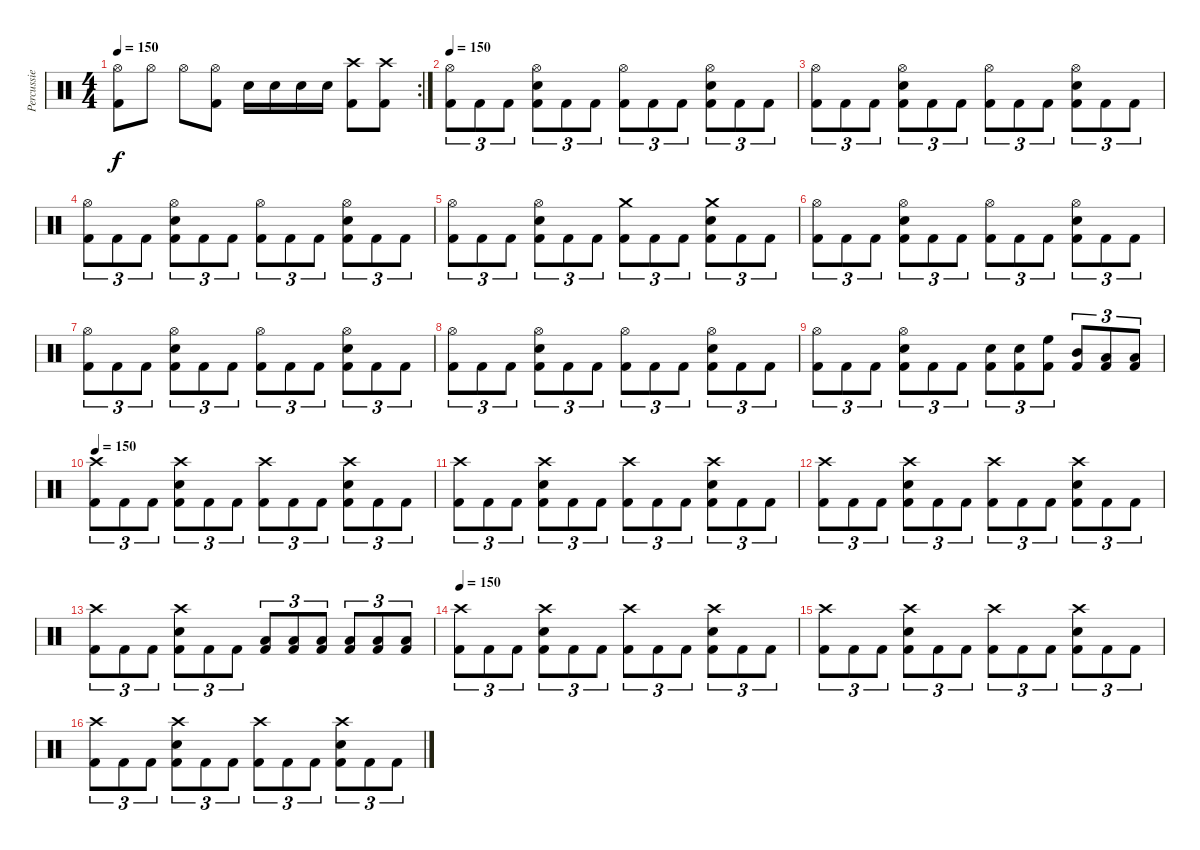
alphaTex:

\track ("Percussie" "Percussie") {instrument percussion}
\staff {score}
\articulation defaults
\rc 2
\ts (4 4)
\tempo 150
\clef neutral
\ks c
("Hi-Hat (open)" "Kick (hit) 2").8{dy f} "Hi-Hat (open)".8 "Hi-Hat (open)".8 ("Hi-Hat (open)" "Kick (hit) 2").8 "Snare (hit) 2".16 "Snare (hit) 2".16 "Snare (hit) 2".16 "Snare (hit) 2".16 ("Crash high (hit)" "Kick (hit) 2").8 ("Crash high (hit)" "Kick (hit) 2").8 |
\tempo 150
("Hi-Hat (open)" "Kick (hit) 2").8{tu (3 2)} "Kick (hit) 2".8{tu (3 2)} "Kick (hit) 2".8{tu (3 2)} ("Hi-Hat (open)" "Snare (hit) 2" "Kick (hit) 2").8{tu (3 2)} "Kick (hit) 2".8{tu (3 2)} "Kick (hit) 2".8{tu (3 2)} ("Hi-Hat (open)" "Kick (hit) 2").8{tu (3 2)} "Kick (hit) 2".8{tu (3 2)} "Kick (hit) 2".8{tu (3 2)} ("Hi-Hat (open)" "Snare (hit) 2" "Kick (hit) 2").8{tu (3 2)} "Kick (hit) 2".8{tu (3 2)} "Kick (hit) 2".8{tu (3 2)} |
("Hi-Hat (open)" "Kick (hit) 2").8{tu (3 2)} "Kick (hit) 2".8{tu (3 2)} "Kick (hit) 2".8{tu (3 2)} ("Hi-Hat (open)" "Snare (hit) 2" "Kick (hit) 2").8{tu (3 2)} "Kick (hit) 2".8{tu (3 2)} "Kick (hit) 2".8{tu (3 2)} ("Hi-Hat (open)" "Kick (hit) 2").8{tu (3 2)} "Kick (hit) 2".8{tu (3 2)} "Kick (hit) 2".8{tu (3 2)} ("Hi-Hat (open)" "Snare (hit) 2" "Kick (hit) 2").8{tu (3 2)} "Kick (hit) 2".8{tu (3 2)} "Kick (hit) 2".8{tu (3 2)} |
("Hi-Hat (open)" "Kick (hit) 2").8{tu (3 2)} "Kick (hit) 2".8{tu (3 2)} "Kick (hit) 2".8{tu (3 2)} ("Hi-Hat (open)" "Snare (hit) 2" "Kick (hit) 2").8{tu (3 2)} "Kick (hit) 2".8{tu (3 2)} "Kick (hit) 2".8{tu (3 2)} ("Hi-Hat (open)" "Kick (hit) 2").8{tu (3 2)} "Kick (hit) 2".8{tu (3 2)} "Kick (hit) 2".8{tu (3 2)} ("Hi-Hat (open)" "Snare (hit) 2" "Kick (hit) 2").8{tu (3 2)} "Kick (hit) 2".8{tu (3 2)} "Kick (hit) 2".8{tu (3 2)} |
("Hi-Hat (open)" "Kick (hit) 2").8{tu (3 2)} "Kick (hit) 2".8{tu (3 2)} "Kick (hit) 2".8{tu (3 2)} ("Hi-Hat (open)" "Snare (hit) 2" "Kick (hit) 2").8{tu (3 2)} "Kick (hit) 2".8{tu (3 2)} "Kick (hit) 2".8{tu (3 2)} ("Crash medium (hit)" "Kick (hit) 2").8{tu (3 2)} "Kick (hit) 2".8{tu (3 2)} "Kick (hit) 2".8{tu (3 2)} ("Crash medium (hit)" "Snare (hit) 2" "Kick (hit) 2").8{tu (3 2)} "Kick (hit) 2".8{tu (3 2)} "Kick (hit) 2".8{tu (3 2)} |
("Hi-Hat (open)" "Kick (hit) 2").8{tu (3 2)} "Kick (hit) 2".8{tu (3 2)} "Kick (hit) 2".8{tu (3 2)} ("Hi-Hat (open)" "Snare (hit) 2" "Kick (hit) 2").8{tu (3 2)} "Kick (hit) 2".8{tu (3 2)} "Kick (hit) 2".8{tu (3 2)} ("Hi-Hat (open)" "Kick (hit) 2").8{tu (3 2)} "Kick (hit) 2".8{tu (3 2)} "Kick (hit) 2".8{tu (3 2)} ("Hi-Hat (open)" "Snare (hit) 2" "Kick (hit) 2").8{tu (3 2)} "Kick (hit) 2".8{tu (3 2)} "Kick (hit) 2".8{tu (3 2)} |
("Hi-Hat (open)" "Kick (hit) 2").8{tu (3 2)} "Kick (hit) 2".8{tu (3 2)} "Kick (hit) 2".8{tu (3 2)} ("Hi-Hat (open)" "Snare (hit) 2" "Kick (hit) 2").8{tu (3 2)} "Kick (hit) 2".8{tu (3 2)} "Kick (hit) 2".8{tu (3 2)} ("Hi-Hat (open)" "Kick (hit) 2").8{tu (3 2)} "Kick (hit) 2".8{tu (3 2)} "Kick (hit) 2".8{tu (3 2)} ("Hi-Hat (open)" "Snare (hit) 2" "Kick (hit) 2").8{tu (3 2)} "Kick (hit) 2".8{tu (3 2)} "Kick (hit) 2".8{tu (3 2)} |
("Hi-Hat (open)" "Kick (hit) 2").8{tu (3 2)} "Kick (hit) 2".8{tu (3 2)} "Kick (hit) 2".8{tu (3 2)} ("Hi-Hat (open)" "Snare (hit) 2" "Kick (hit) 2").8{tu (3 2)} "Kick (hit) 2".8{tu (3 2)} "Kick (hit) 2".8{tu (3 2)} ("Hi-Hat (open)" "Kick (hit) 2").8{tu (3 2)} "Kick (hit) 2".8{tu (3 2)} "Kick (hit) 2".8{tu (3 2)} ("Hi-Hat (open)" "Snare (hit) 2" "Kick (hit) 2").8{tu (3 2)} "Kick (hit) 2".8{tu (3 2)} "Kick (hit) 2".8{tu (3 2)} |
("Hi-Hat (open)" "Kick (hit) 2").8{tu (3 2)} "Kick (hit) 2".8{tu (3 2)} "Kick (hit) 2".8{tu (3 2)} ("Hi-Hat (open)" "Snare (hit) 2" "Kick (hit) 2").8{tu (3 2)} "Kick (hit) 2".8{tu (3 2)} "Kick (hit) 2".8{tu (3 2)} ("Snare (hit) 2" "Kick (hit) 2").8{tu (3 2)} ("Snare (hit) 2" "Kick (hit) 2").8{tu (3 2)} ("High Floor Tom (hit)" "Kick (hit) 2").8{tu (3 2)} ("Mid Tom (hit)" "Kick (hit) 2").8{tu (3 2)} ("Low Tom (hit)" "Kick (hit) 2").8{tu (3 2)} ("Low Floor Tom (hit)" "Kick (hit) 2").8{tu (3 2)} |
\tempo 150
("Crash high (hit)" "Kick (hit) 2").8{tu (3 2)} "Kick (hit) 2".8{tu (3 2)} "Kick (hit) 2".8{tu (3 2)} ("Crash high (hit)" "Snare (hit) 2" "Kick (hit) 2").8{tu (3 2)} "Kick (hit) 2".8{tu (3 2)} "Kick (hit) 2".8{tu (3 2)} ("Crash high (hit)" "Kick (hit) 2").8{tu (3 2)} "Kick (hit) 2".8{tu (3 2)} "Kick (hit) 2".8{tu (3 2)} ("Crash high (hit)" "Snare (hit) 2" "Kick (hit) 2").8{tu (3 2)} "Kick (hit) 2".8{tu (3 2)} "Kick (hit) 2".8{tu (3 2)} |
("Crash high (hit)" "Kick (hit) 2").8{tu (3 2)} "Kick (hit) 2".8{tu (3 2)} "Kick (hit) 2".8{tu (3 2)} ("Crash high (hit)" "Snare (hit) 2" "Kick (hit) 2").8{tu (3 2)} "Kick (hit) 2".8{tu (3 2)} "Kick (hit) 2".8{tu (3 2)} ("Crash high (hit)" "Kick (hit) 2").8{tu (3 2)} "Kick (hit) 2".8{tu (3 2)} "Kick (hit) 2".8{tu (3 2)} ("Crash high (hit)" "Snare (hit) 2" "Kick (hit) 2").8{tu (3 2)} "Kick (hit) 2".8{tu (3 2)} "Kick (hit) 2".8{tu (3 2)} |
("Crash high (hit)" "Kick (hit) 2").8{tu (3 2)} "Kick (hit) 2".8{tu (3 2)} "Kick (hit) 2".8{tu (3 2)} ("Crash high (hit)" "Snare (hit) 2" "Kick (hit) 2").8{tu (3 2)} "Kick (hit) 2".8{tu (3 2)} "Kick (hit) 2".8{tu (3 2)} ("Crash high (hit)" "Kick (hit) 2").8{tu (3 2)} "Kick (hit) 2".8{tu (3 2)} "Kick (hit) 2".8{tu (3 2)} ("Crash high (hit)" "Snare (hit) 2" "Kick (hit) 2").8{tu (3 2)} "Kick (hit) 2".8{tu (3 2)} "Kick (hit) 2".8{tu (3 2)} |
("Crash high (hit)" "Kick (hit) 2").8{tu (3 2)} "Kick (hit) 2".8{tu (3 2)} "Kick (hit) 2".8{tu (3 2)} ("Crash high (hit)" "Snare (hit) 2" "Kick (hit) 2").8{tu (3 2)} "Kick (hit) 2".8{tu (3 2)} "Kick (hit) 2".8{tu (3 2)} ("Low Tom (hit)" "Kick (hit) 2").8{tu (3 2)} ("Low Floor Tom (hit)" "Kick (hit) 2").8{tu (3 2)} ("Low Floor Tom (hit)" "Kick (hit) 2").8{tu (3 2)} ("Low Tom (hit)" "Kick (hit) 2").8{tu (3 2)} ("Low Floor Tom (hit)" "Kick (hit) 2").8{tu (3 2)} ("Low Floor Tom (hit)" "Kick (hit) 2").8{tu (3 2)} |
\tempo 150
("Crash high (hit)" "Kick (hit) 2").8{tu (3 2)} "Kick (hit) 2".8{tu (3 2)} "Kick (hit) 2".8{tu (3 2)} ("Crash high (hit)" "Snare (hit) 2" "Kick (hit) 2").8{tu (3 2)} "Kick (hit) 2".8{tu (3 2)} "Kick (hit) 2".8{tu (3 2)} ("Crash high (hit)" "Kick (hit) 2").8{tu (3 2)} "Kick (hit) 2".8{tu (3 2)} "Kick (hit) 2".8{tu (3 2)} ("Crash high (hit)" "Snare (hit) 2" "Kick (hit) 2").8{tu (3 2)} "Kick (hit) 2".8{tu (3 2)} "Kick (hit) 2".8{tu (3 2)} |
("Crash high (hit)" "Kick (hit) 2").8{tu (3 2)} "Kick (hit) 2".8{tu (3 2)} "Kick (hit) 2".8{tu (3 2)} ("Crash high (hit)" "Snare (hit) 2" "Kick (hit) 2").8{tu (3 2)} "Kick (hit) 2".8{tu (3 2)} "Kick (hit) 2".8{tu (3 2)} ("Crash high (hit)" "Kick (hit) 2").8{tu (3 2)} "Kick (hit) 2".8{tu (3 2)} "Kick (hit) 2".8{tu (3 2)} ("Crash high (hit)" "Snare (hit) 2" "Kick (hit) 2").8{tu (3 2)} "Kick (hit) 2".8{tu (3 2)} "Kick (hit) 2".8{tu (3 2)} |
("Crash high (hit)" "Kick (hit) 2").8{tu (3 2)} "Kick (hit) 2".8{tu (3 2)} "Kick (hit) 2".8{tu (3 2)} ("Crash high (hit)" "Snare (hit) 2" "Kick (hit) 2").8{tu (3 2)} "Kick (hit) 2".8{tu (3 2)} "Kick (hit) 2".8{tu (3 2)} ("Crash high (hit)" "Kick (hit) 2").8{tu (3 2)} "Kick (hit) 2".8{tu (3 2)} "Kick (hit) 2".8{tu (3 2)} ("Crash high (hit)" "Snare (hit) 2" "Kick (hit) 2").8{tu (3 2)} "Kick (hit) 2".8{tu (3 2)} "Kick (hit) 2".8{tu (3 2)}
